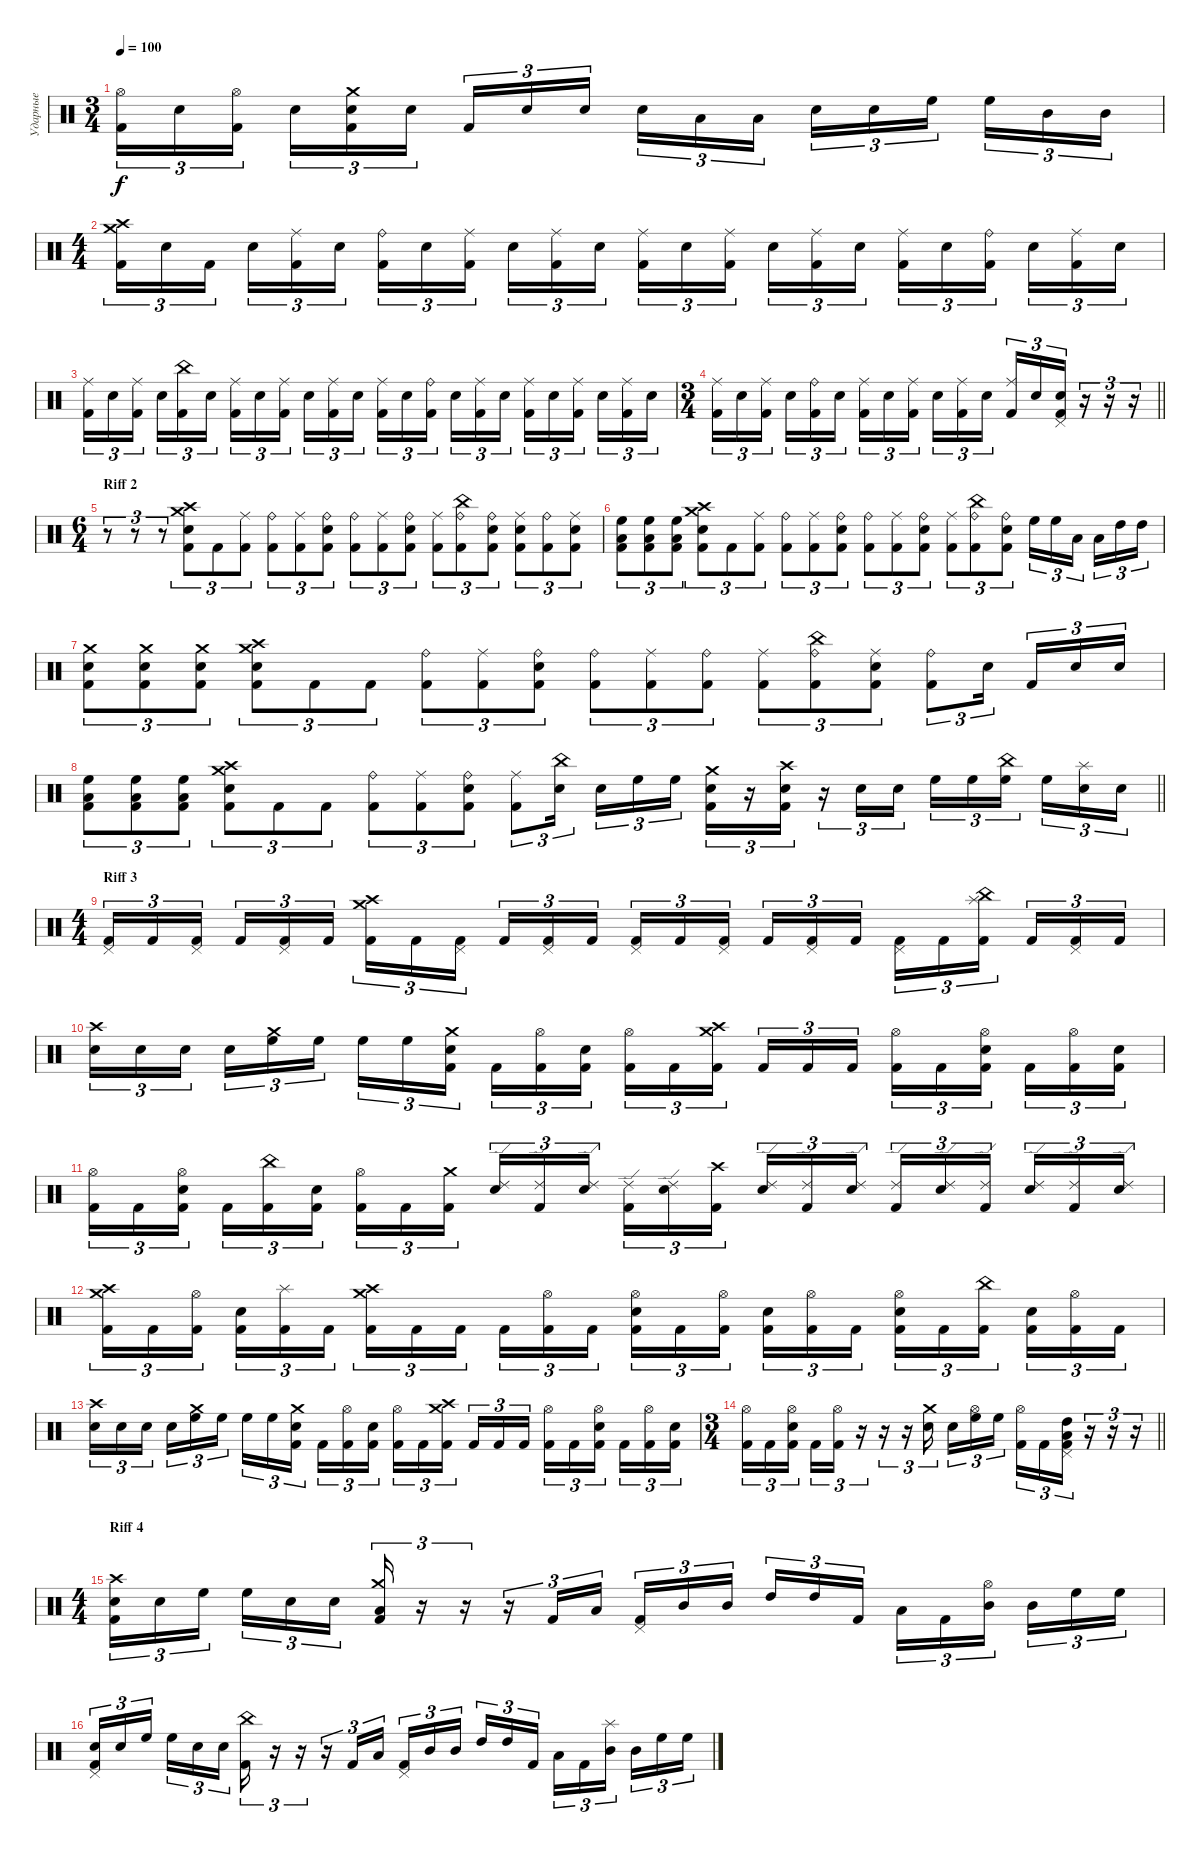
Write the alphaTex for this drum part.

\track ("Ударные" "Ударные") {instrument percussion}
\staff {score}
\articulation defaults
\ts (3 4)
\tempo 100
\clef neutral
\ks c
("Hi-Hat (open)" "Kick (hit) 2").16{tu (3 2) dy f} "Electric Snare (hit)".16{tu (3 2)} ("Hi-Hat (open)" "Kick (hit) 2").16{tu (3 2) beam splitsecondary} "Electric Snare (hit)".16{tu (3 2)} ("Crash medium (hit)" "Electric Snare (hit)" "Kick (hit) 2").16{tu (3 2)} "Electric Snare (hit)".16{tu (3 2)} "Kick (hit) 2".16{tu (3 2)} "Electric Snare (hit)".16{tu (3 2)} "Electric Snare (hit)".16{tu (3 2) beam splitsecondary} "Electric Snare (hit)".16{tu (3 2)} "Low Tom (hit)".16{tu (3 2)} "Low Tom (hit)".16{tu (3 2)} "Electric Snare (hit)".16{tu (3 2)} "Electric Snare (hit)".16{tu (3 2)} "High Floor Tom (hit)".16{tu (3 2) beam splitsecondary} "High Floor Tom (hit)".16{tu (3 2)} "Mid Tom (hit)".16{tu (3 2)} "Mid Tom (hit)".16{tu (3 2)} |
\ts (4 4)
("Crash medium (hit)" "Crash high (hit)" "Kick (hit) 2").16{tu (3 2)} "Electric Snare (hit)".16{tu (3 2)} "Kick (hit) 2".16{tu (3 2) beam splitsecondary} "Electric Snare (hit)".16{tu (3 2)} ("Ride (middle)" "Kick (hit) 2").16{tu (3 2)} "Electric Snare (hit)".16{tu (3 2)} ("Ride (bell)" "Kick (hit) 2").16{tu (3 2)} "Electric Snare (hit)".16{tu (3 2)} ("Ride (middle)" "Kick (hit) 2").16{tu (3 2) beam splitsecondary} "Electric Snare (hit)".16{tu (3 2)} ("Ride (middle)" "Kick (hit) 2").16{tu (3 2)} "Electric Snare (hit)".16{tu (3 2)} ("Ride (middle)" "Kick (hit) 2").16{tu (3 2)} "Electric Snare (hit)".16{tu (3 2)} ("Ride (middle)" "Kick (hit) 2").16{tu (3 2) beam splitsecondary} "Electric Snare (hit)".16{tu (3 2)} ("Ride (middle)" "Kick (hit) 2").16{tu (3 2)} "Electric Snare (hit)".16{tu (3 2)} ("Ride (middle)" "Kick (hit) 2").16{tu (3 2)} "Electric Snare (hit)".16{tu (3 2)} ("Ride (bell)" "Kick (hit) 2").16{tu (3 2) beam splitsecondary} "Electric Snare (hit)".16{tu (3 2)} ("Ride (middle)" "Kick (hit) 2").16{tu (3 2)} "Electric Snare (hit)".16{tu (3 2)} |
("Ride (middle)" "Kick (hit) 2").16{tu (3 2)} "Electric Snare (hit)".16{tu (3 2)} ("Ride (middle)" "Kick (hit) 2").16{tu (3 2) beam splitsecondary} "Electric Snare (hit)".16{tu (3 2)} ("China (hit)" "Kick (hit) 2").16{tu (3 2)} "Electric Snare (hit)".16{tu (3 2)} ("Ride (middle)" "Kick (hit) 2").16{tu (3 2)} "Electric Snare (hit)".16{tu (3 2)} ("Ride (middle)" "Kick (hit) 2").16{tu (3 2) beam splitsecondary} "Electric Snare (hit)".16{tu (3 2)} ("Ride (middle)" "Kick (hit) 2").16{tu (3 2)} "Electric Snare (hit)".16{tu (3 2)} ("Ride (middle)" "Kick (hit) 2").16{tu (3 2)} "Electric Snare (hit)".16{tu (3 2)} ("Ride (bell)" "Kick (hit) 2").16{tu (3 2) beam splitsecondary} "Electric Snare (hit)".16{tu (3 2)} ("Ride (middle)" "Kick (hit) 2").16{tu (3 2)} "Electric Snare (hit)".16{tu (3 2)} ("Ride (middle)" "Kick (hit) 2").16{tu (3 2)} "Electric Snare (hit)".16{tu (3 2)} ("Ride (middle)" "Kick (hit) 2").16{tu (3 2) beam splitsecondary} "Electric Snare (hit)".16{tu (3 2)} ("Ride (middle)" "Kick (hit) 2").16{tu (3 2)} "Electric Snare (hit)".16{tu (3 2)} |
\ts (3 4)
\barLineRight lightlight
("Ride (middle)" "Kick (hit) 2").16{tu (3 2)} "Electric Snare (hit)".16{tu (3 2)} ("Ride (middle)" "Kick (hit) 2").16{tu (3 2) beam splitsecondary} "Electric Snare (hit)".16{tu (3 2)} ("Ride (bell)" "Kick (hit) 2").16{tu (3 2)} "Electric Snare (hit)".16{tu (3 2)} ("Ride (middle)" "Kick (hit) 2").16{tu (3 2)} "Electric Snare (hit)".16{tu (3 2)} ("Ride (middle)" "Kick (hit) 2").16{tu (3 2) beam splitsecondary} "Electric Snare (hit)".16{tu (3 2)} ("Ride (middle)" "Kick (hit) 2").16{tu (3 2)} "Electric Snare (hit)".16{tu (3 2)} ("Ride (middle)" "Kick (hit) 2").16{tu (3 2)} "Electric Snare (hit)".16{tu (3 2)} ("Pedal Hi-Hat (hit)" "Electric Snare (hit)" "Kick (hit) 2").16{tu (3 2)} r.16{tu (3 2)} r.16{tu (3 2)} r.16{tu (3 2)} |
\ts (6 4)
\section ("" "Riff 2")
r.8{tu (3 2)} r.8{tu (3 2)} r.8{tu (3 2)} ("Crash high (hit)" "Crash medium (hit)" "Electric Snare (hit)" "Kick (hit) 2").8{tu (3 2)} "Kick (hit) 2".8{tu (3 2)} ("Ride (middle)" "Kick (hit) 2").8{tu (3 2)} ("Ride (bell)" "Kick (hit) 2").8{tu (3 2)} ("Ride (middle)" "Kick (hit) 2").8{tu (3 2)} ("Ride (bell)" "Electric Snare (hit)" "Kick (hit) 2").8{tu (3 2)} ("Ride (bell)" "Kick (hit) 2").8{tu (3 2)} ("Ride (middle)" "Kick (hit) 2").8{tu (3 2)} ("Ride (bell)" "Electric Snare (hit)" "Kick (hit) 2").8{tu (3 2)} ("Ride (middle)" "Kick (hit) 2").8{tu (3 2)} ("China (hit)" "Ride (bell)" "Kick (hit) 2").8{tu (3 2)} ("Ride (bell)" "Electric Snare (hit)" "Kick (hit) 2").8{tu (3 2)} ("Ride (middle)" "Electric Snare (hit)" "Kick (hit) 2").8{tu (3 2)} ("Ride (bell)" "Kick (hit) 2").8{tu (3 2)} ("Ride (middle)" "Electric Snare (hit)" "Kick (hit) 2").8{tu (3 2)} |
("Low Tom (hit)" "High Floor Tom (hit)" "Kick (hit) 2").8{tu (3 2)} ("Low Tom (hit)" "High Floor Tom (hit)" "Kick (hit) 2").8{tu (3 2)} ("Low Tom (hit)" "High Floor Tom (hit)" "Kick (hit) 2").8{tu (3 2)} ("Crash high (hit)" "Crash medium (hit)" "Electric Snare (hit)" "Kick (hit) 2").8{tu (3 2)} "Kick (hit) 2".8{tu (3 2)} ("Ride (middle)" "Kick (hit) 2").8{tu (3 2)} ("Ride (bell)" "Kick (hit) 2").8{tu (3 2)} ("Ride (middle)" "Kick (hit) 2").8{tu (3 2)} ("Ride (bell)" "Electric Snare (hit)" "Kick (hit) 2").8{tu (3 2)} ("Ride (bell)" "Kick (hit) 2").8{tu (3 2)} ("Ride (middle)" "Kick (hit) 2").8{tu (3 2)} ("Ride (bell)" "Electric Snare (hit)" "Kick (hit) 2").8{tu (3 2)} ("Ride (middle)" "Kick (hit) 2").8{tu (3 2)} ("China (hit)" "Ride (bell)" "Kick (hit) 2").8{tu (3 2)} ("Ride (bell)" "Electric Snare (hit)" "Kick (hit) 2").8{tu (3 2)} "High Floor Tom (hit)".16{tu (3 2)} "High Floor Tom (hit)".16{tu (3 2)} "Low Tom (hit)".16{tu (3 2) beam splitsecondary} "Low Tom (hit)".16{tu (3 2)} "High Tom (hit)".16{tu (3 2)} "High Tom (hit)".16{tu (3 2)} |
("Crash medium (hit)" "Electric Snare (hit)" "Kick (hit) 2").8{tu (3 2)} ("Crash medium (hit)" "Electric Snare (hit)" "Kick (hit) 2").8{tu (3 2)} ("Crash medium (hit)" "Electric Snare (hit)" "Kick (hit) 2").8{tu (3 2)} ("Crash high (hit)" "Crash medium (hit)" "Electric Snare (hit)" "Kick (hit) 2").8{tu (3 2)} "Kick (hit) 2".8{tu (3 2)} "Kick (hit) 2".8{tu (3 2)} ("Ride (bell)" "Kick (hit) 2").8{tu (3 2)} ("Ride (middle)" "Kick (hit) 2").8{tu (3 2)} ("Ride (bell)" "Electric Snare (hit)" "Kick (hit) 2").8{tu (3 2)} ("Ride (bell)" "Kick (hit) 2").8{tu (3 2)} ("Ride (middle)" "Kick (hit) 2").8{tu (3 2)} ("Ride (bell)" "Kick (hit) 2").8{tu (3 2)} ("Ride (middle)" "Kick (hit) 2").8{tu (3 2)} ("China (hit)" "Ride (bell)" "Kick (hit) 2").8{tu (3 2)} ("Ride (middle)" "Electric Snare (hit)" "Kick (hit) 2").8{tu (3 2)} ("Ride (bell)" "Kick (hit) 2").8{tu (3 2)} "Electric Snare (hit)".16{tu (3 2) beam splitsecondary} "Kick (hit) 2".16{tu (3 2)} "Electric Snare (hit)".16{tu (3 2)} "Electric Snare (hit)".16{tu (3 2)} |
\barLineRight lightlight
("Low Tom (hit)" "High Floor Tom (hit)" "Kick (hit) 2").8{tu (3 2)} ("Low Tom (hit)" "High Floor Tom (hit)" "Kick (hit) 2").8{tu (3 2)} ("Low Tom (hit)" "High Floor Tom (hit)" "Kick (hit) 2").8{tu (3 2)} ("Crash high (hit)" "Crash medium (hit)" "Electric Snare (hit)" "Kick (hit) 2").8{tu (3 2)} "Kick (hit) 2".8{tu (3 2)} "Kick (hit) 2".8{tu (3 2)} ("Ride (bell)" "Kick (hit) 2").8{tu (3 2)} ("Ride (middle)" "Kick (hit) 2").8{tu (3 2)} ("Ride (bell)" "Electric Snare (hit)" "Kick (hit) 2").8{tu (3 2)} ("Ride (middle)" "Kick (hit) 2").8{tu (3 2)} ("China (hit)" "Electric Snare (hit)").16{tu (3 2) beam splitsecondary} "Electric Snare (hit)".16{tu (3 2)} "High Floor Tom (hit)".16{tu (3 2)} "High Floor Tom (hit)".16{tu (3 2) beam splitsecondary} ("Crash medium (hit)" "Electric Snare (hit)" "Kick (hit) 2").16{tu (3 2)} r.16{tu (3 2)} ("Crash high (hit)" "Electric Snare (hit)" "Kick (hit) 2").16{tu (3 2)} r.16{tu (3 2)} "Electric Snare (hit)".16{tu (3 2)} "Electric Snare (hit)".16{tu (3 2) beam splitsecondary} "High Floor Tom (hit)".16{tu (3 2)} "High Floor Tom (hit)".16{tu (3 2)} ("China (hit)" "High Floor Tom (hit)").16{tu (3 2) beam splitsecondary} "High Floor Tom (hit)".16{tu (3 2)} ("Splash (hit)" "Electric Snare (hit)").16{tu (3 2)} "Electric Snare (hit)".16{tu (3 2)} |
\ts (4 4)
\section ("" "Riff 3")
("Pedal Hi-Hat (hit)" "Kick (hit) 2").16{tu (3 2)} "Kick (hit) 2".16{tu (3 2)} ("Pedal Hi-Hat (hit)" "Kick (hit) 2").16{tu (3 2) beam splitsecondary} "Kick (hit) 2".16{tu (3 2)} ("Pedal Hi-Hat (hit)" "Kick (hit) 2").16{tu (3 2)} "Kick (hit) 2".16{tu (3 2)} ("Crash medium (hit)" "Crash high (hit)" "Kick (hit) 2").16{tu (3 2)} "Kick (hit) 2".16{tu (3 2)} ("Pedal Hi-Hat (hit)" "Kick (hit) 2").16{tu (3 2) beam splitsecondary} "Kick (hit) 2".16{tu (3 2)} ("Pedal Hi-Hat (hit)" "Kick (hit) 2").16{tu (3 2)} "Kick (hit) 2".16{tu (3 2)} ("Pedal Hi-Hat (hit)" "Kick (hit) 2").16{tu (3 2)} "Kick (hit) 2".16{tu (3 2)} ("Pedal Hi-Hat (hit)" "Kick (hit) 2").16{tu (3 2) beam splitsecondary} "Kick (hit) 2".16{tu (3 2)} ("Pedal Hi-Hat (hit)" "Kick (hit) 2").16{tu (3 2)} "Kick (hit) 2".16{tu (3 2)} ("Pedal Hi-Hat (hit)" "Kick (hit) 2").16{tu (3 2)} "Kick (hit) 2".16{tu (3 2)} ("China (hit)" "Splash (hit)" "Kick (hit) 2").16{tu (3 2) beam splitsecondary} "Kick (hit) 2".16{tu (3 2)} ("Pedal Hi-Hat (hit)" "Kick (hit) 2").16{tu (3 2)} "Kick (hit) 2".16{tu (3 2)} |
("Crash high (hit)" "Electric Snare (hit)").16{tu (3 2)} "Electric Snare (hit)".16{tu (3 2)} "Electric Snare (hit)".16{tu (3 2) beam splitsecondary} "Electric Snare (hit)".16{tu (3 2)} ("Crash medium (hit)" "High Floor Tom (hit)").16{tu (3 2)} "High Floor Tom (hit)".16{tu (3 2)} "High Floor Tom (hit)".16{tu (3 2)} "High Floor Tom (hit)".16{tu (3 2)} ("Crash medium (hit)" "Electric Snare (hit)" "Kick (hit) 2").16{tu (3 2) beam splitsecondary} "Kick (hit) 2".16{tu (3 2)} ("Hi-Hat (open)" "Kick (hit) 2").16{tu (3 2)} ("Electric Snare (hit)" "Kick (hit) 2").16{tu (3 2)} ("Hi-Hat (open)" "Kick (hit) 2").16{tu (3 2)} "Kick (hit) 2".16{tu (3 2)} ("Crash medium (hit)" "Crash high (hit)" "Kick (hit) 2").16{tu (3 2) beam splitsecondary} "Kick (hit) 2".16{tu (3 2)} "Kick (hit) 2".16{tu (3 2)} "Kick (hit) 2".16{tu (3 2)} ("Hi-Hat (open)" "Kick (hit) 2").16{tu (3 2)} "Kick (hit) 2".16{tu (3 2)} ("Hi-Hat (open)" "Electric Snare (hit)" "Kick (hit) 2").16{tu (3 2) beam splitsecondary} "Kick (hit) 2".16{tu (3 2)} ("Hi-Hat (open)" "Kick (hit) 2").16{tu (3 2)} ("Electric Snare (hit)" "Kick (hit) 2").16{tu (3 2)} |
("Hi-Hat (open)" "Kick (hit) 2").16{tu (3 2)} "Kick (hit) 2".16{tu (3 2)} ("Hi-Hat (open)" "Electric Snare (hit)" "Kick (hit) 2").16{tu (3 2) beam splitsecondary} "Kick (hit) 2".16{tu (3 2)} ("China (hit)" "Kick (hit) 2").16{tu (3 2)} ("Electric Snare (hit)" "Kick (hit) 2").16{tu (3 2)} ("Hi-Hat (open)" "Kick (hit) 2").16{tu (3 2)} "Kick (hit) 2".16{tu (3 2)} ("Crash medium (hit)" "Kick (hit) 2").16{tu (3 2) beam splitsecondary} ("Ride (edge) 2" "Electric Snare (hit)").16{tu (3 2)} ("Ride (edge) 2" "Kick (hit) 2").16{tu (3 2)} ("Ride (edge) 2" "Electric Snare (hit)").16{tu (3 2)} ("Ride (edge) 2" "Kick (hit) 2").16{tu (3 2)} ("Ride (edge) 2" "Electric Snare (hit)").16{tu (3 2)} ("Crash high (hit)" "Kick (hit) 2").16{tu (3 2) beam splitsecondary} ("Ride (edge) 2" "Electric Snare (hit)").16{tu (3 2)} ("Ride (edge) 2" "Kick (hit) 2").16{tu (3 2)} ("Ride (edge) 2" "Electric Snare (hit)").16{tu (3 2)} ("Ride (edge) 2" "Kick (hit) 2").16{tu (3 2)} ("Ride (edge) 2" "Electric Snare (hit)").16{tu (3 2)} ("Ride (edge) 2" "Kick (hit) 2").16{tu (3 2) beam splitsecondary} ("Ride (edge) 2" "Electric Snare (hit)").16{tu (3 2)} ("Ride (edge) 2" "Kick (hit) 2").16{tu (3 2)} ("Ride (edge) 2" "Electric Snare (hit)").16{tu (3 2)} |
("Crash medium (hit)" "Crash high (hit)" "Kick (hit) 2").16{tu (3 2)} "Kick (hit) 2".16{tu (3 2)} ("Hi-Hat (open)" "Kick (hit) 2").16{tu (3 2) beam splitsecondary} ("Electric Snare (hit)" "Kick (hit) 2").16{tu (3 2)} ("Splash (hit)" "Kick (hit) 2").16{tu (3 2)} "Kick (hit) 2".16{tu (3 2)} ("Crash medium (hit)" "Crash high (hit)" "Kick (hit) 2").16{tu (3 2)} "Kick (hit) 2".16{tu (3 2)} "Kick (hit) 2".16{tu (3 2) beam splitsecondary} "Kick (hit) 2".16{tu (3 2)} ("Hi-Hat (open)" "Kick (hit) 2").16{tu (3 2)} "Kick (hit) 2".16{tu (3 2)} ("Hi-Hat (open)" "Electric Snare (hit)" "Kick (hit) 2").16{tu (3 2)} "Kick (hit) 2".16{tu (3 2)} ("Hi-Hat (open)" "Kick (hit) 2").16{tu (3 2) beam splitsecondary} ("Electric Snare (hit)" "Kick (hit) 2").16{tu (3 2)} ("Hi-Hat (open)" "Kick (hit) 2").16{tu (3 2)} "Kick (hit) 2".16{tu (3 2)} ("Hi-Hat (open)" "Electric Snare (hit)" "Kick (hit) 2").16{tu (3 2)} "Kick (hit) 2".16{tu (3 2)} ("China (hit)" "Kick (hit) 2").16{tu (3 2) beam splitsecondary} ("Electric Snare (hit)" "Kick (hit) 2").16{tu (3 2)} ("Hi-Hat (open)" "Kick (hit) 2").16{tu (3 2)} "Kick (hit) 2".16{tu (3 2)} |
("Crash high (hit)" "Electric Snare (hit)").16{tu (3 2)} "Electric Snare (hit)".16{tu (3 2)} "Electric Snare (hit)".16{tu (3 2) beam splitsecondary} "Electric Snare (hit)".16{tu (3 2)} ("Crash medium (hit)" "High Floor Tom (hit)").16{tu (3 2)} "High Floor Tom (hit)".16{tu (3 2)} "High Floor Tom (hit)".16{tu (3 2)} "High Floor Tom (hit)".16{tu (3 2)} ("Crash medium (hit)" "Electric Snare (hit)" "Kick (hit) 2").16{tu (3 2) beam splitsecondary} "Kick (hit) 2".16{tu (3 2)} ("Hi-Hat (open)" "Kick (hit) 2").16{tu (3 2)} ("Electric Snare (hit)" "Kick (hit) 2").16{tu (3 2)} ("Hi-Hat (open)" "Kick (hit) 2").16{tu (3 2)} "Kick (hit) 2".16{tu (3 2)} ("Crash medium (hit)" "Crash high (hit)" "Kick (hit) 2").16{tu (3 2) beam splitsecondary} "Kick (hit) 2".16{tu (3 2)} "Kick (hit) 2".16{tu (3 2)} "Kick (hit) 2".16{tu (3 2)} ("Hi-Hat (open)" "Kick (hit) 2").16{tu (3 2)} "Kick (hit) 2".16{tu (3 2)} ("Hi-Hat (open)" "Electric Snare (hit)" "Kick (hit) 2").16{tu (3 2) beam splitsecondary} "Kick (hit) 2".16{tu (3 2)} ("Hi-Hat (open)" "Kick (hit) 2").16{tu (3 2)} ("Electric Snare (hit)" "Kick (hit) 2").16{tu (3 2)} |
\ts (3 4)
\barLineRight lightlight
("Hi-Hat (open)" "Kick (hit) 2").16{tu (3 2)} "Kick (hit) 2".16{tu (3 2)} ("Hi-Hat (open)" "Electric Snare (hit)" "Kick (hit) 2").16{tu (3 2) beam splitsecondary} "Kick (hit) 2".16{tu (3 2)} ("Hi-Hat (open)" "Kick (hit) 2").16{tu (3 2)} r.16{tu (3 2)} r.16{tu (3 2)} r.16{tu (3 2)} ("Crash medium (hit)" "Electric Snare (hit)").16{tu (3 2) beam splitsecondary} "Electric Snare (hit)".16{tu (3 2)} ("Hi-Hat (open)" "High Floor Tom (hit)").16{tu (3 2)} "High Floor Tom (hit)".16{tu (3 2)} ("Hi-Hat (open)" "Kick (hit) 2").16{tu (3 2)} "Kick (hit) 2".16{tu (3 2)} ("Pedal Hi-Hat (hit)" "High Tom (hit)" "Low Tom (hit)" "Kick (hit) 2").16{tu (3 2)} r.16{tu (3 2)} r.16{tu (3 2)} r.16{tu (3 2)} |
\ts (4 4)
\section ("" "Riff 4")
("Crash high (hit)" "Electric Snare (hit)" "Kick (hit) 2").16{tu (3 2)} "Electric Snare (hit)".16{tu (3 2)} "High Floor Tom (hit)".16{tu (3 2) beam splitsecondary} "High Floor Tom (hit)".16{tu (3 2)} "Electric Snare (hit)".16{tu (3 2)} "Electric Snare (hit)".16{tu (3 2)} ("Crash medium (hit)" "Low Tom (hit)" "Kick (hit) 2").16{tu (3 2)} r.16{tu (3 2)} r.16{tu (3 2)} r.16{tu (3 2)} "Kick (hit) 2".16{tu (3 2)} "Low Tom (hit)".16{tu (3 2)} ("Pedal Hi-Hat (hit)" "Kick (hit) 2").16{tu (3 2)} "Mid Tom (hit)".16{tu (3 2)} "Mid Tom (hit)".16{tu (3 2) beam splitsecondary} "High Tom (hit)".16{tu (3 2)} "High Tom (hit)".16{tu (3 2)} "Kick (hit) 2".16{tu (3 2)} "Low Tom (hit)".16{tu (3 2)} "Kick (hit) 2".16{tu (3 2)} ("Hi-Hat (open)" "Mid Tom (hit)").16{tu (3 2) beam splitsecondary} "Mid Tom (hit)".16{tu (3 2)} "High Floor Tom (hit)".16{tu (3 2)} "High Floor Tom (hit)".16{tu (3 2)} |
("Pedal Hi-Hat (hit)" "Electric Snare (hit)" "Kick (hit) 2").16{tu (3 2)} "Electric Snare (hit)".16{tu (3 2)} "High Floor Tom (hit)".16{tu (3 2) beam splitsecondary} "High Floor Tom (hit)".16{tu (3 2)} "Electric Snare (hit)".16{tu (3 2)} "Electric Snare (hit)".16{tu (3 2)} ("China (hit)" "Kick (hit) 2").16{tu (3 2)} r.16{tu (3 2)} r.16{tu (3 2)} r.16{tu (3 2)} "Kick (hit) 2".16{tu (3 2)} "Low Tom (hit)".16{tu (3 2)} ("Pedal Hi-Hat (hit)" "Kick (hit) 2").16{tu (3 2)} "Mid Tom (hit)".16{tu (3 2)} "Mid Tom (hit)".16{tu (3 2) beam splitsecondary} "High Tom (hit)".16{tu (3 2)} "High Tom (hit)".16{tu (3 2)} "Kick (hit) 2".16{tu (3 2)} "Low Tom (hit)".16{tu (3 2)} "Kick (hit) 2".16{tu (3 2)} ("Splash (hit)" "Mid Tom (hit)").16{tu (3 2) beam splitsecondary} "Mid Tom (hit)".16{tu (3 2)} "High Floor Tom (hit)".16{tu (3 2)} "High Floor Tom (hit)".16{tu (3 2)}
